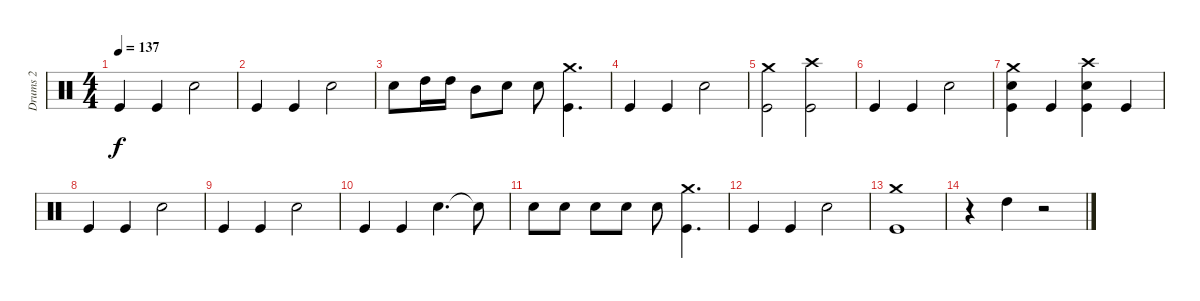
\track ("Drums 2" "Drums 2") {instrument percussion}
\staff {score}
\articulation defaults
\ts (4 4)
\tempo 137
\clef neutral
\ks c "Kick (hit)".4{dy f} "Kick (hit)".4 "Snare (hit) 2".2
|
"Kick (hit)".4 "Kick (hit)".4 "Snare (hit) 2".2 |
"Snare (hit) 2".8 "High Tom (hit)".16 "High Tom (hit)".16 "Mid Tom (hit)".8 "Snare (hit) 2".8 "Snare (hit) 2".8 ("Crash medium (hit)" "Kick (hit)").4{d} |
"Kick (hit)".4 "Kick (hit)".4 "Snare (hit) 2".2 |
("Crash medium (hit)" "Kick (hit)").2 ("Crash high (hit)" "Kick (hit)").2 |
"Kick (hit)".4 "Kick (hit)".4 "Snare (hit) 2".2 |
("Crash medium (hit)" "Snare (hit) 2" "Kick (hit)").4 "Kick (hit)".4 ("Crash high (hit)" "Snare (hit) 2" "Kick (hit)").4 "Kick (hit)".4 |
"Kick (hit)".4 "Kick (hit)".4 "Snare (hit) 2".2 |
"Kick (hit)".4 "Kick (hit)".4 "Snare (hit) 2".2 |
"Kick (hit)".4 "Kick (hit)".4 "Snare (hit) 2".4{d} "Snare (hit) 2"{t}.8 |
"Snare (hit) 2".8 "Snare (hit) 2".8 "Snare (hit) 2".8 "Snare (hit) 2".8 "Snare (hit) 2".8 ("Crash medium (hit)" "Kick (hit)").4{d} |
"Kick (hit)".4 "Kick (hit)".4 "Snare (hit) 2".2 |
("Crash medium (hit)" "Kick (hit)").1 |
r.4 "High Tom (hit)".4 r.2
